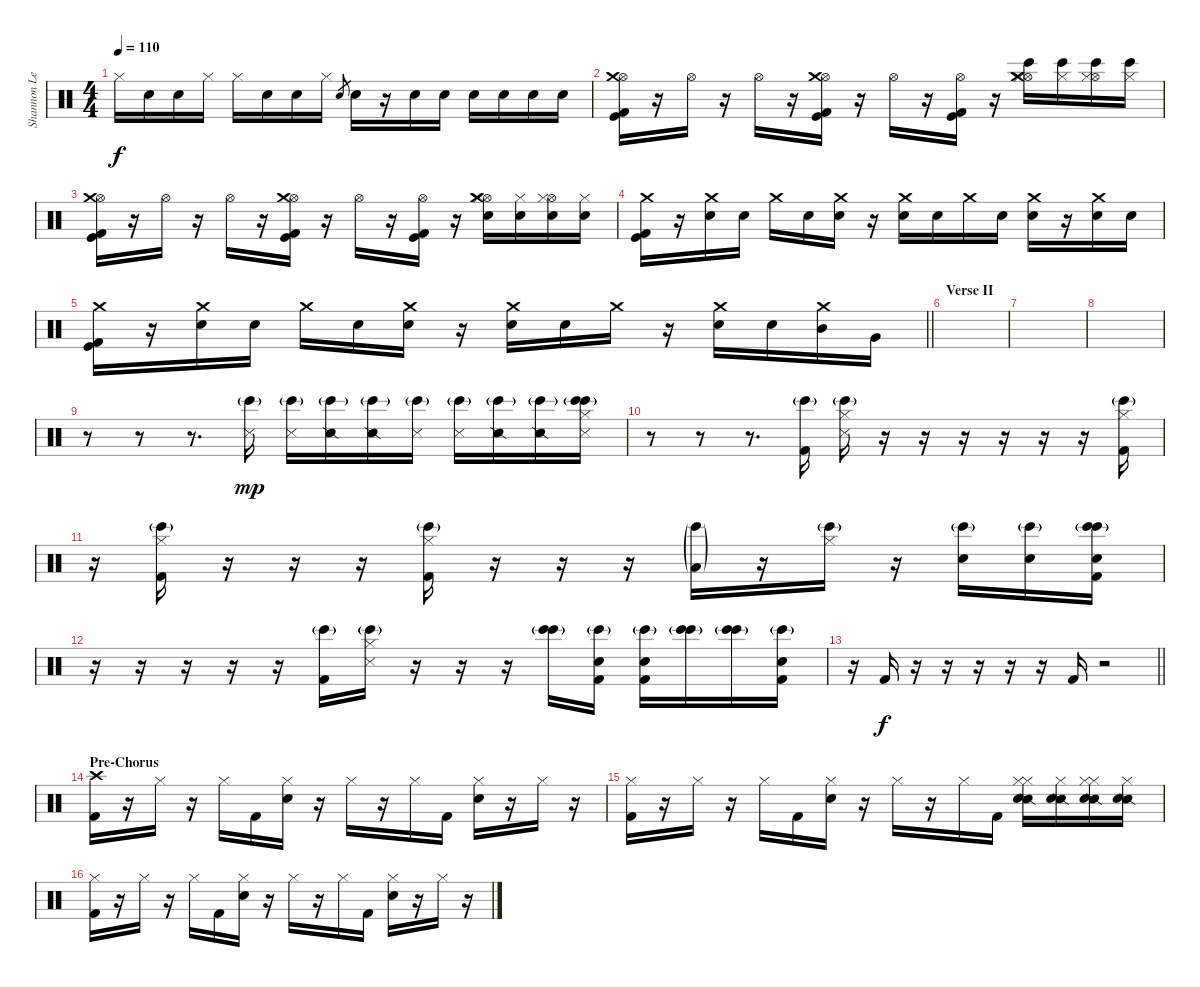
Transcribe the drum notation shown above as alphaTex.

\track ("Shannon Leto [Drums]" "Shannon Le") {instrument percussion}
\staff {score}
\articulation defaults
\ts (4 4)
\tempo 110
\clef neutral
\ks c "Hi-Hat (closed)".16{dy f} "Hand Clap (hit)".16 "Hand Clap (hit)".16 "Hi-Hat (closed)".16 "Hi-Hat (closed)".16 "Hand Clap (hit)".16 "Hand Clap (hit)".16 "Hi-Hat (closed)".16 "Electric Snare (hit)".8{gr} "Electric Snare (hit)".16
r.16 "Electric Snare (hit)".16 "Electric Snare (hit)".16 "Electric Snare (hit)".16 "Electric Snare (hit)".16 "Electric Snare (hit)".16 "Electric Snare (hit)".16 |
("Hi-Hat (open)" "Crash medium (hit)" "Kick (hit)" "Kick (hit) 2").16 r.16 "Hi-Hat (open)".16 r.16 "Hi-Hat (open)".16 r.16 ("Hi-Hat (open)" "Crash medium (hit)" "Kick (hit)" "Kick (hit) 2").16 r.16 "Hi-Hat (open)".16 r.16 ("Hi-Hat (open)" "Kick (hit)" "Kick (hit) 2").16 r.16 ("Hi-Hat (open)" "Crash medium (hit)" "Bongo High (hit)" "Hi-Hat (closed)").16 ("Bongo High (hit)" "Hi-Hat (closed)").16 ("Hi-Hat (open)" "Bongo High (hit)" "Hi-Hat (closed)").16 ("Bongo High (hit)" "Hi-Hat (closed)").16 |
("Hi-Hat (open)" "Crash medium (hit)" "Kick (hit)" "Kick (hit) 2").16 r.16 "Hi-Hat (open)".16 r.16 "Hi-Hat (open)".16 r.16 ("Hi-Hat (open)" "Crash medium (hit)" "Kick (hit)" "Kick (hit) 2").16 r.16 "Hi-Hat (open)".16 r.16 ("Hi-Hat (open)" "Kick (hit)" "Kick (hit) 2").16 r.16 ("Hi-Hat (open)" "Crash medium (hit)" "Hand Clap (hit)" "Hi-Hat (closed)").16 ("Hand Clap (hit)" "Hi-Hat (closed)").16 ("Hi-Hat (open)" "Hand Clap (hit)" "Hi-Hat (closed)").16 ("Hand Clap (hit)" "Hi-Hat (closed)").16 |
("Crash medium (hit)" "Kick (hit)" "Kick (hit) 2").16 r.16 ("Crash medium (hit)" "Electric Snare (hit)").16 "Electric Snare (hit)".16 "Crash medium (hit)".16 "Electric Snare (hit)".16 ("Crash medium (hit)" "Electric Snare (hit)").16 r.16 ("Crash medium (hit)" "Electric Snare (hit)").16 "Electric Snare (hit)".16 "Crash medium (hit)".16 "Electric Snare (hit)".16 ("Crash medium (hit)" "Electric Snare (hit)").16 r.16 ("Crash medium (hit)" "Electric Snare (hit)").16 "Electric Snare (hit)".16 |
\barLineRight lightlight
("Crash medium (hit)" "Kick (hit)" "Kick (hit) 2").16 r.16 ("Crash medium (hit)" "Electric Snare (hit)").16 "Electric Snare (hit)".16 "Crash medium (hit)".16 "Electric Snare (hit)".16 ("Crash medium (hit)" "Electric Snare (hit)").16 r.16 ("Crash medium (hit)" "Electric Snare (hit)").16 "Electric Snare (hit)".16 "Crash medium (hit)".16 r.16 ("Crash medium (hit)" "Electric Snare (hit)").16 "Electric Snare (hit)".16 ("Crash medium (hit)" "Mid Tom (hit)").16 "Very Low Tom (hit)".16 |
\section ("" "Verse II")
|
|
|
r.8 r.8 r.8{d} ("Metronome (hit)" "Bongo High (hit)"{g}).16{dy mp} ("Metronome (hit)" "Bongo High (hit)"{g}).16 ("Snare (side stick) 2" "Bongo High (hit)"{g}).16 ("Snare (side stick) 2" "Bongo High (hit)"{g}).16 ("Metronome (hit)" "Bongo High (hit)"{g}).16 ("Metronome (hit)" "Bongo High (hit)"{g}).16 ("Snare (side stick) 2" "Bongo High (hit)"{g}).16 ("Snare (side stick) 2" "Bongo High (hit)"{g}).16 ("Hi-Hat (closed)" "Metronome (hit)" "Bongo High (hit)"{g} "Bongo High (hit)").16 |
r.8 r.8 r.8{d} ("Bongo High (hit)"{g} "Kick (hit) 2").16 ("Hi-Hat (closed)" "Metronome (hit)" "Bongo High (hit)"{g}).16 r.16 r.16 r.16 r.16 r.16 r.16 ("Hi-Hat (closed)" "Bongo High (hit)"{g} "Kick (hit) 2").16 |
r.16 ("Hi-Hat (closed)" "Bongo High (hit)"{g} "Kick (hit) 2").16 r.16 r.16 r.16 ("Hi-Hat (closed)" "Bongo High (hit)"{g} "Kick (hit) 2").16 r.16 r.16 r.16 ("Bongo High (hit)"{g} "Low Tom (hit)"{g}).16 r.16 ("Hi-Hat (closed)" "Bongo High (hit)"{g}).16 r.16 ("Hand Clap (hit)" "Bongo High (hit)"{g}).16 ("Hand Clap (hit)" "Bongo High (hit)"{g}).16 ("Bongo High (hit)" "Hand Clap (hit)" "Bongo High (hit)"{g} "Kick (hit) 2").16 |
r.16 r.16 r.16 r.16 r.16 ("Bongo High (hit)"{g} "Kick (hit) 2").16 ("Hi-Hat (closed)" "Metronome (hit)" "Bongo High (hit)"{g}).16 r.16 r.16 r.16 ("Bongo High (hit)" "Bongo High (hit)"{g}).16 ("Hand Clap (hit)" "Bongo High (hit)"{g} "Kick (hit) 2").16 ("Hand Clap (hit)" "Bongo High (hit)"{g} "Kick (hit) 2").16 ("Bongo High (hit)" "Bongo High (hit)"{g}).16 ("Bongo High (hit)" "Bongo High (hit)"{g}).16 ("Hand Clap (hit)" "Bongo High (hit)"{g} "Kick (hit) 2").16 |
\barLineRight lightlight
r.16 "Kick (hit) 2".16{dy f} r.16 r.16 r.16 r.16 r.16 "Kick (hit) 2".16 r.2 |
\section ("" "Pre-Chorus")
("Crash high (hit)" "Kick (hit) 2").16 r.16 "Hi-Hat (closed)".16 r.16 "Hi-Hat (closed)".16 "Kick (hit) 2".16 ("Hi-Hat (closed)" "Electric Snare (hit)").16 r.16 "Hi-Hat (closed)".16 r.16 "Hi-Hat (closed)".16 "Kick (hit) 2".16 ("Hi-Hat (closed)" "Electric Snare (hit)").16 r.16 "Hi-Hat (closed)".16 r.16 |
("Hi-Hat (closed)" "Kick (hit) 2").16 r.16 "Hi-Hat (closed)".16 r.16 "Hi-Hat (closed)".16 "Kick (hit) 2".16 ("Hi-Hat (closed)" "Electric Snare (hit)").16 r.16 "Hi-Hat (closed)".16 r.16 "Hi-Hat (closed)".16 "Kick (hit) 2".16 ("Hi-Hat (closed)" "Snare (side stick) 2" "Hi-Hat (closed)" "Snare (hit) 2").16 ("Snare (side stick) 2" "Hi-Hat (closed)" "Snare (hit) 2").16 ("Hi-Hat (closed)" "Snare (side stick) 2" "Hi-Hat (closed)" "Snare (hit) 2").16 ("Snare (side stick) 2" "Hi-Hat (closed)" "Snare (hit) 2").16 |
("Hi-Hat (closed)" "Kick (hit) 2").16 r.16 "Hi-Hat (closed)".16 r.16 "Hi-Hat (closed)".16 "Kick (hit) 2".16 ("Hi-Hat (closed)" "Electric Snare (hit)").16 r.16 "Hi-Hat (closed)".16 r.16 "Hi-Hat (closed)".16 "Kick (hit) 2".16 ("Hi-Hat (closed)" "Electric Snare (hit)").16 r.16 "Hi-Hat (closed)".16 r.16
